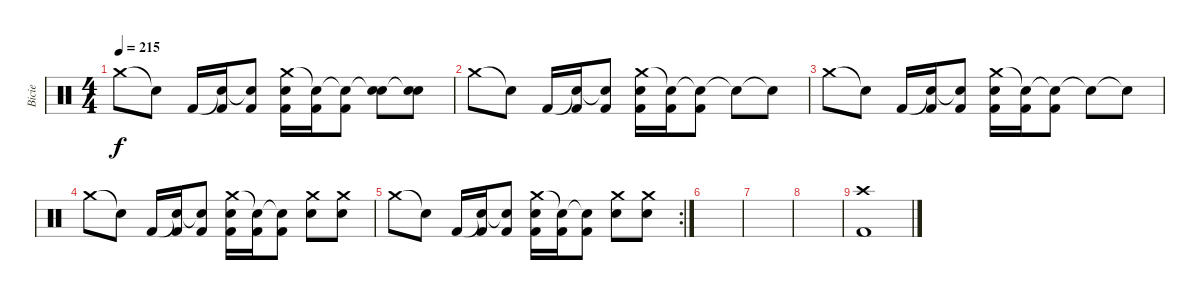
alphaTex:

\track ("Bicie" "Bicie") {instrument percussion}
\staff {score}
\articulation defaults
\ts (4 4)
\tempo 215
\clef neutral
\ks c "Crash medium (hit)".8{dy f} "Snare (hit)"{t}.8 "Kick (hit) 2".16
("Snare (hit)"{t} "Kick (hit) 2").16 ("Snare (hit)"{t} "Kick (hit) 2").8 ("Crash medium (hit)" "Electric Snare (hit)" "Kick (hit) 2").16 ("Snare (hit)"{t} "Kick (hit) 2").16 ("Snare (hit)"{t} "Kick (hit) 2").8 ("Snare (hit)"{t} "Electric Snare (hit)").8 ("Snare (hit)"{t} "Electric Snare (hit)").8 |
"Crash medium (hit)".8 "Snare (hit)"{t}.8 "Kick (hit) 2".16 ("Snare (hit)"{t} "Kick (hit) 2").16 ("Snare (hit)"{t} "Kick (hit) 2").8 ("Crash medium (hit)" "Electric Snare (hit)" "Kick (hit) 2").16 ("Snare (hit)"{t} "Kick (hit) 2").16 ("Snare (hit)"{t} "Kick (hit) 2").8 "Snare (hit)"{t}.8 "Snare (hit)"{t}.8 |
"Crash medium (hit)".8 "Snare (hit)"{t}.8 "Kick (hit) 2".16 ("Snare (hit)"{t} "Kick (hit) 2").16 ("Snare (hit)"{t} "Kick (hit) 2").8 ("Crash medium (hit)" "Electric Snare (hit)" "Kick (hit) 2").16 ("Snare (hit)"{t} "Kick (hit) 2").16 ("Snare (hit)"{t} "Kick (hit) 2").8 "Snare (hit)"{t}.8 "Snare (hit)"{t}.8 |
"Crash medium (hit)".8 "Snare (hit)"{t}.8 "Kick (hit) 2".16 ("Snare (hit)"{t} "Kick (hit) 2").16 ("Snare (hit)"{t} "Kick (hit) 2").8 ("Crash medium (hit)" "Electric Snare (hit)" "Kick (hit) 2").16 ("Snare (hit)"{t} "Kick (hit) 2").16 ("Snare (hit)"{t} "Kick (hit) 2").8 ("Crash medium (hit)" "Electric Snare (hit)").8 ("Crash medium (hit)" "Electric Snare (hit)").8 |
\rc 2 "Crash medium (hit)".8 "Snare (hit)"{t}.8 "Kick (hit) 2".16
("Snare (hit)"{t} "Kick (hit) 2").16 ("Snare (hit)"{t} "Kick (hit) 2").8 ("Crash medium (hit)" "Electric Snare (hit)" "Kick (hit) 2").16 ("Snare (hit)"{t} "Kick (hit) 2").16 ("Snare (hit)"{t} "Kick (hit) 2").8 ("Crash medium (hit)" "Electric Snare (hit)").8 ("Crash medium (hit)" "Electric Snare (hit)").8 |
|
|
|
("Crash high (hit)" "Kick (hit) 2").1
